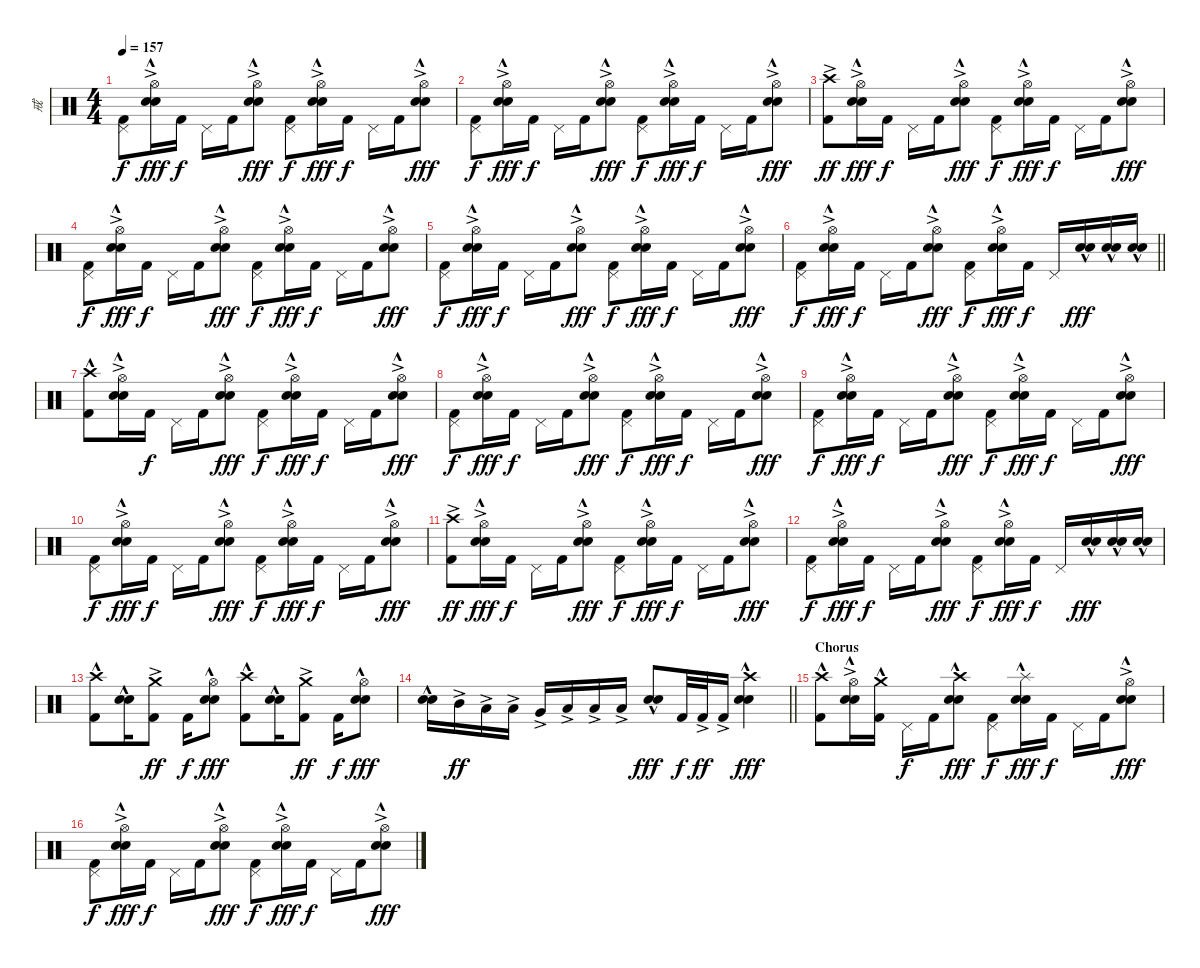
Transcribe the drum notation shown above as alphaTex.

\track ("戒" "戒") {instrument percussion}
\staff {score}
\articulation defaults
\ts (4 4)
\tempo 157
\clef neutral
\ks c
("Pedal Hi-Hat (hit)" "Kick (hit) 2").8{dy f} ("Hi-Hat (open)"{ac} "Electric Snare (hit)"{hac} "Snare (hit) 2").16{dy fff} "Kick (hit) 2".16{dy f} "Pedal Hi-Hat (hit)".16 "Kick (hit) 2".16 ("Hi-Hat (open)"{ac} "Electric Snare (hit)"{hac} "Snare (hit) 2").8{dy fff} ("Pedal Hi-Hat (hit)" "Kick (hit) 2").8{dy f} ("Hi-Hat (open)"{ac} "Electric Snare (hit)"{hac} "Snare (hit) 2").16{dy fff} "Kick (hit) 2".16{dy f} "Pedal Hi-Hat (hit)".16 "Kick (hit) 2".16 ("Hi-Hat (open)"{ac} "Electric Snare (hit)"{hac} "Snare (hit) 2").8{dy fff} |
("Pedal Hi-Hat (hit)" "Kick (hit) 2").8{dy f} ("Hi-Hat (open)"{ac} "Electric Snare (hit)"{hac} "Snare (hit) 2").16{dy fff} "Kick (hit) 2".16{dy f} "Pedal Hi-Hat (hit)".16 "Kick (hit) 2".16 ("Hi-Hat (open)"{ac} "Electric Snare (hit)"{hac} "Snare (hit) 2").8{dy fff} ("Pedal Hi-Hat (hit)" "Kick (hit) 2").8{dy f} ("Hi-Hat (open)"{ac} "Electric Snare (hit)"{hac} "Snare (hit) 2").16{dy fff} "Kick (hit) 2".16{dy f} "Pedal Hi-Hat (hit)".16 "Kick (hit) 2".16 ("Hi-Hat (open)"{ac} "Electric Snare (hit)"{hac} "Snare (hit) 2").8{dy fff} |
("Crash high (hit)"{ac} "Kick (hit) 2").8{dy ff} ("Hi-Hat (open)"{ac} "Electric Snare (hit)"{hac} "Snare (hit) 2").16{dy fff} "Kick (hit) 2".16{dy f} "Pedal Hi-Hat (hit)".16 "Kick (hit) 2".16 ("Hi-Hat (open)"{ac} "Electric Snare (hit)"{hac} "Snare (hit) 2").8{dy fff} ("Pedal Hi-Hat (hit)" "Kick (hit) 2").8{dy f} ("Hi-Hat (open)"{ac} "Electric Snare (hit)"{hac} "Snare (hit) 2").16{dy fff} "Kick (hit) 2".16{dy f} "Pedal Hi-Hat (hit)".16 "Kick (hit) 2".16 ("Hi-Hat (open)"{ac} "Electric Snare (hit)"{hac} "Snare (hit) 2").8{dy fff} |
("Pedal Hi-Hat (hit)" "Kick (hit) 2").8{dy f} ("Hi-Hat (open)"{ac} "Electric Snare (hit)"{hac} "Snare (hit) 2").16{dy fff} "Kick (hit) 2".16{dy f} "Pedal Hi-Hat (hit)".16 "Kick (hit) 2".16 ("Hi-Hat (open)"{ac} "Electric Snare (hit)"{hac} "Snare (hit) 2").8{dy fff} ("Pedal Hi-Hat (hit)" "Kick (hit) 2").8{dy f} ("Hi-Hat (open)"{ac} "Electric Snare (hit)"{hac} "Snare (hit) 2").16{dy fff} "Kick (hit) 2".16{dy f} "Pedal Hi-Hat (hit)".16 "Kick (hit) 2".16 ("Hi-Hat (open)"{ac} "Electric Snare (hit)"{hac} "Snare (hit) 2").8{dy fff} |
("Pedal Hi-Hat (hit)" "Kick (hit) 2").8{dy f} ("Hi-Hat (open)"{ac} "Electric Snare (hit)"{hac} "Snare (hit) 2").16{dy fff} "Kick (hit) 2".16{dy f} "Pedal Hi-Hat (hit)".16 "Kick (hit) 2".16 ("Hi-Hat (open)"{ac} "Electric Snare (hit)"{hac} "Snare (hit) 2").8{dy fff} ("Pedal Hi-Hat (hit)" "Kick (hit) 2").8{dy f} ("Hi-Hat (open)"{ac} "Electric Snare (hit)"{hac} "Snare (hit) 2").16{dy fff} "Kick (hit) 2".16{dy f} "Pedal Hi-Hat (hit)".16 "Kick (hit) 2".16 ("Hi-Hat (open)"{ac} "Electric Snare (hit)"{hac} "Snare (hit) 2").8{dy fff} |
\barLineRight lightlight
("Pedal Hi-Hat (hit)" "Kick (hit) 2").8{dy f} ("Hi-Hat (open)"{ac} "Electric Snare (hit)"{hac} "Snare (hit) 2").16{dy fff} "Kick (hit) 2".16{dy f} "Pedal Hi-Hat (hit)".16 "Kick (hit) 2".16 ("Hi-Hat (open)"{ac} "Electric Snare (hit)"{hac} "Snare (hit) 2").8{dy fff} ("Pedal Hi-Hat (hit)" "Kick (hit) 2").8{dy f} ("Hi-Hat (open)"{ac} "Electric Snare (hit)"{hac} "Snare (hit) 2").16{dy fff} "Kick (hit) 2".16{dy f} "Pedal Hi-Hat (hit)".16 ("Electric Snare (hit)"{hac} "Snare (hit) 2").16{dy fff} ("Electric Snare (hit)"{hac} "Snare (hit) 2").16 ("Electric Snare (hit)"{hac} "Snare (hit) 2").16 |
\section ("" "")
("Crash high (hit)"{hac} "Kick (hit) 2").8 ("Hi-Hat (open)"{ac} "Electric Snare (hit)"{hac} "Snare (hit) 2").16 "Kick (hit) 2".16{dy f} "Pedal Hi-Hat (hit)".16 "Kick (hit) 2".16 ("Hi-Hat (open)"{ac} "Electric Snare (hit)"{hac} "Snare (hit) 2").8{dy fff} ("Pedal Hi-Hat (hit)" "Kick (hit) 2").8{dy f} ("Hi-Hat (open)"{ac} "Electric Snare (hit)"{hac} "Snare (hit) 2").16{dy fff} "Kick (hit) 2".16{dy f} "Pedal Hi-Hat (hit)".16 "Kick (hit) 2".16 ("Hi-Hat (open)"{ac} "Electric Snare (hit)"{hac} "Snare (hit) 2").8{dy fff} |
("Pedal Hi-Hat (hit)" "Kick (hit) 2").8{dy f} ("Hi-Hat (open)"{ac} "Electric Snare (hit)"{hac} "Snare (hit) 2").16{dy fff} "Kick (hit) 2".16{dy f} "Pedal Hi-Hat (hit)".16 "Kick (hit) 2".16 ("Hi-Hat (open)"{ac} "Electric Snare (hit)"{hac} "Snare (hit) 2").8{dy fff} ("Pedal Hi-Hat (hit)" "Kick (hit) 2").8{dy f} ("Hi-Hat (open)"{ac} "Electric Snare (hit)"{hac} "Snare (hit) 2").16{dy fff} "Kick (hit) 2".16{dy f} "Pedal Hi-Hat (hit)".16 "Kick (hit) 2".16 ("Hi-Hat (open)"{ac} "Electric Snare (hit)"{hac} "Snare (hit) 2").8{dy fff} |
("Pedal Hi-Hat (hit)" "Kick (hit) 2").8{dy f} ("Hi-Hat (open)"{ac} "Electric Snare (hit)"{hac} "Snare (hit) 2").16{dy fff} "Kick (hit) 2".16{dy f} "Pedal Hi-Hat (hit)".16 "Kick (hit) 2".16 ("Hi-Hat (open)"{ac} "Electric Snare (hit)"{hac} "Snare (hit) 2").8{dy fff} ("Pedal Hi-Hat (hit)" "Kick (hit) 2").8{dy f} ("Hi-Hat (open)"{ac} "Electric Snare (hit)"{hac} "Snare (hit) 2").16{dy fff} "Kick (hit) 2".16{dy f} "Pedal Hi-Hat (hit)".16 "Kick (hit) 2".16 ("Hi-Hat (open)"{ac} "Electric Snare (hit)"{hac} "Snare (hit) 2").8{dy fff} |
("Pedal Hi-Hat (hit)" "Kick (hit) 2").8{dy f} ("Hi-Hat (open)"{ac} "Electric Snare (hit)"{hac} "Snare (hit) 2").16{dy fff} "Kick (hit) 2".16{dy f} "Pedal Hi-Hat (hit)".16 "Kick (hit) 2".16 ("Hi-Hat (open)"{ac} "Electric Snare (hit)"{hac} "Snare (hit) 2").8{dy fff} ("Pedal Hi-Hat (hit)" "Kick (hit) 2").8{dy f} ("Hi-Hat (open)"{ac} "Electric Snare (hit)"{hac} "Snare (hit) 2").16{dy fff} "Kick (hit) 2".16{dy f} "Pedal Hi-Hat (hit)".16 "Kick (hit) 2".16 ("Hi-Hat (open)"{ac} "Electric Snare (hit)"{hac} "Snare (hit) 2").8{dy fff} |
("Crash high (hit)"{ac} "Kick (hit) 2").8{dy ff} ("Hi-Hat (open)"{ac} "Electric Snare (hit)"{hac} "Snare (hit) 2").16{dy fff} "Kick (hit) 2".16{dy f} "Pedal Hi-Hat (hit)".16 "Kick (hit) 2".16 ("Hi-Hat (open)"{ac} "Electric Snare (hit)"{hac} "Snare (hit) 2").8{dy fff} ("Pedal Hi-Hat (hit)" "Kick (hit) 2").8{dy f} ("Hi-Hat (open)"{ac} "Electric Snare (hit)"{hac} "Snare (hit) 2").16{dy fff} "Kick (hit) 2".16{dy f} "Pedal Hi-Hat (hit)".16 "Kick (hit) 2".16 ("Hi-Hat (open)"{ac} "Electric Snare (hit)"{hac} "Snare (hit) 2").8{dy fff} |
("Pedal Hi-Hat (hit)" "Kick (hit) 2").8{dy f} ("Hi-Hat (open)"{ac} "Electric Snare (hit)"{hac} "Snare (hit) 2").16{dy fff} "Kick (hit) 2".16{dy f} "Pedal Hi-Hat (hit)".16 "Kick (hit) 2".16 ("Hi-Hat (open)"{ac} "Electric Snare (hit)"{hac} "Snare (hit) 2").8{dy fff} ("Pedal Hi-Hat (hit)" "Kick (hit) 2").8{dy f} ("Hi-Hat (open)"{ac} "Electric Snare (hit)"{hac} "Snare (hit) 2").16{dy fff} "Kick (hit) 2".16{dy f} "Pedal Hi-Hat (hit)".16 ("Electric Snare (hit)"{hac} "Snare (hit) 2").16{dy fff} ("Electric Snare (hit)"{hac} "Snare (hit) 2").16 ("Electric Snare (hit)"{hac} "Snare (hit) 2").16 |
("Crash high (hit)"{hac} "Kick (hit) 2").8 ("Electric Snare (hit)"{hac} "Snare (hit) 2").16 ("Crash medium (hit)"{ac} "Kick (hit) 2").8{dy ff} "Kick (hit) 2".16{dy f} ("Hi-Hat (open)" "Electric Snare (hit)"{hac} "Snare (hit) 2").8{dy fff} ("Crash high (hit)"{hac} "Kick (hit) 2").8 ("Electric Snare (hit)"{hac} "Snare (hit) 2").16 ("Crash medium (hit)"{ac} "Kick (hit) 2").8{dy ff} "Kick (hit) 2".16{dy f} ("Hi-Hat (open)" "Electric Snare (hit)"{hac} "Snare (hit) 2").8{dy fff} |
\barLineRight lightlight
("Electric Snare (hit)"{hac} "Snare (hit) 2").16 "Mid Tom (hit)"{ac}.16{dy ff} "Low Tom (hit)"{ac}.16 "Low Tom (hit)"{ac}.16 "Very Low Tom (hit)"{ac}.16 "Low Floor Tom (hit)"{ac}.16 "Low Tom (hit)"{ac}.16 "Low Floor Tom (hit)"{ac}.16 ("Electric Snare (hit)"{hac} "Snare (hit) 2").8{dy fff} "Kick (hit) 2".32{dy f} "Kick (hit) 2"{ac}.32{dy ff} "Kick (hit) 2"{ac}.16 ("Crash high (hit)" "Electric Snare (hit)"{hac} "Snare (hit) 2").4{dy fff} |
\section ("" "Chorus")
("Crash high (hit)"{hac} "Kick (hit) 2").8 ("Hi-Hat (open)"{ac} "Electric Snare (hit)"{hac} "Snare (hit) 2").16 ("Crash medium (hit)"{hac} "Kick (hit) 2").16 "Pedal Hi-Hat (hit)".16{dy f} "Kick (hit) 2".16 ("Crash high (hit)"{hac} "Electric Snare (hit)"{hac} "Snare (hit) 2").8{dy fff} ("Pedal Hi-Hat (hit)" "Kick (hit) 2").8{dy f} ("Splash (hit)"{hac} "Electric Snare (hit)"{hac} "Snare (hit) 2").16{dy fff} "Kick (hit) 2".16{dy f} "Pedal Hi-Hat (hit)".16 "Kick (hit) 2".16 ("Hi-Hat (open)"{ac} "Electric Snare (hit)"{hac} "Snare (hit) 2").8{dy fff} |
("Pedal Hi-Hat (hit)" "Kick (hit) 2").8{dy f} ("Hi-Hat (open)"{ac} "Electric Snare (hit)"{hac} "Snare (hit) 2").16{dy fff} "Kick (hit) 2".16{dy f} "Pedal Hi-Hat (hit)".16 "Kick (hit) 2".16 ("Hi-Hat (open)"{ac} "Electric Snare (hit)"{hac} "Snare (hit) 2").8{dy fff} ("Pedal Hi-Hat (hit)" "Kick (hit) 2").8{dy f} ("Hi-Hat (open)"{ac} "Electric Snare (hit)"{hac} "Snare (hit) 2").16{dy fff} "Kick (hit) 2".16{dy f} "Pedal Hi-Hat (hit)".16 "Kick (hit) 2".16 ("Hi-Hat (open)"{ac} "Electric Snare (hit)"{hac} "Snare (hit) 2").8{dy fff}
